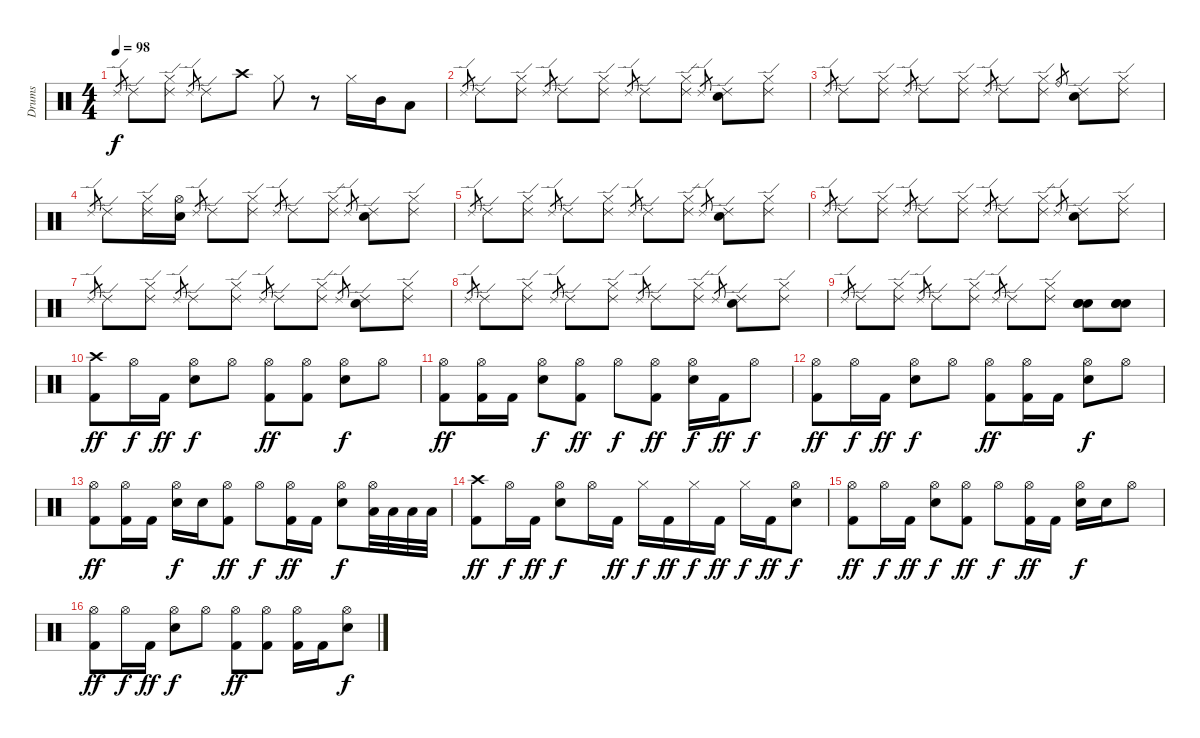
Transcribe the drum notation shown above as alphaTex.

\track ("Drums" "Drums") {instrument percussion}
\staff {score}
\articulation defaults
\ts (4 4)
\tempo 98
\clef neutral
\ks c "Ride (edge) 2".8{gr dy f} "Ride (edge) 2".8
("Ride (edge) 2" "Hi-Hat (closed)").8 "Ride (edge) 2".8{gr} "Ride (edge) 2".8 "Crash high (hit)".8 "Hi-Hat (closed)".8 r.8 "Hi-Hat (closed)".16 "Mid Tom (hit)".16 "Low Tom (hit)".8 |
"Ride (edge) 2".8{gr} "Ride (edge) 2".8 ("Ride (edge) 2" "Hi-Hat (closed)").8 "Ride (edge) 2".8{gr} "Ride (edge) 2".8 ("Ride (edge) 2" "Hi-Hat (closed)").8 "Ride (edge) 2".8{gr} "Ride (edge) 2".8 ("Ride (edge) 2" "Hi-Hat (closed)").8 "Ride (edge) 2".8{gr} ("Ride (edge) 2" "Snare (hit) 2").8 ("Ride (edge) 2" "Hi-Hat (closed)").8 |
"Ride (edge) 2".8{gr} "Ride (edge) 2".8 ("Ride (edge) 2" "Hi-Hat (closed)").8 "Ride (edge) 2".8{gr} "Ride (edge) 2".8 ("Ride (edge) 2" "Hi-Hat (closed)").8 "Ride (edge) 2".8{gr} "Ride (edge) 2".8 ("Ride (edge) 2" "Hi-Hat (closed)").8 "Ride (bell)".8{gr} ("Ride (edge) 2" "Snare (hit) 2").8 ("Ride (edge) 2" "Hi-Hat (closed)").8 |
"Ride (edge) 2".8{gr} "Ride (edge) 2".8 ("Ride (edge) 2" "Hi-Hat (closed)").16 ("Hi-Hat (open)" "Snare (hit) 2").16 "Ride (edge) 2".8{gr} "Ride (edge) 2".8 ("Ride (edge) 2" "Hi-Hat (closed)").8 "Ride (edge) 2".8{gr} "Ride (edge) 2".8 ("Ride (edge) 2" "Hi-Hat (closed)").8 "Ride (edge) 2".8{gr} ("Ride (edge) 2" "Snare (hit) 2").8 ("Ride (edge) 2" "Hi-Hat (closed)").8 |
"Ride (edge) 2".8{gr} "Ride (edge) 2".8 ("Ride (edge) 2" "Hi-Hat (closed)").8 "Ride (edge) 2".8{gr} "Ride (edge) 2".8 ("Ride (edge) 2" "Hi-Hat (closed)").8 "Ride (edge) 2".8{gr} "Ride (edge) 2".8 ("Ride (edge) 2" "Hi-Hat (closed)").8 "Ride (edge) 2".8{gr} ("Ride (edge) 2" "Snare (hit) 2").8 ("Ride (edge) 2" "Hi-Hat (closed)").8 |
"Ride (edge) 2".8{gr} "Ride (edge) 2".8 ("Ride (edge) 2" "Hi-Hat (closed)").8 "Ride (edge) 2".8{gr} "Ride (edge) 2".8 ("Ride (edge) 2" "Hi-Hat (closed)").8 "Ride (edge) 2".8{gr} "Ride (edge) 2".8 ("Ride (edge) 2" "Hi-Hat (closed)").8 "Ride (edge) 2".8{gr} ("Ride (edge) 2" "Snare (hit) 2").8 ("Ride (edge) 2" "Hi-Hat (closed)").8 |
"Ride (edge) 2".8{gr} "Ride (edge) 2".8 ("Ride (edge) 2" "Hi-Hat (closed)").8 "Ride (edge) 2".8{gr} "Ride (edge) 2".8 ("Ride (edge) 2" "Hi-Hat (closed)").8 "Ride (edge) 2".8{gr} "Ride (edge) 2".8 ("Ride (edge) 2" "Hi-Hat (closed)").8 "Ride (edge) 2".8{gr} ("Ride (edge) 2" "Snare (hit) 2").8 ("Ride (edge) 2" "Hi-Hat (closed)").8 |
"Ride (edge) 2".8{gr} "Ride (edge) 2".8 ("Ride (edge) 2" "Hi-Hat (closed)").8 "Ride (edge) 2".8{gr} "Ride (edge) 2".8 ("Ride (edge) 2" "Hi-Hat (closed)").8 "Ride (edge) 2".8{gr} "Ride (edge) 2".8 ("Ride (edge) 2" "Hi-Hat (closed)").8 "Ride (edge) 2".8{gr} ("Ride (edge) 2" "Snare (hit) 2").8 ("Ride (edge) 2" "Hi-Hat (closed)").8 |
"Ride (edge) 2".8{gr} "Ride (edge) 2".8 ("Ride (edge) 2" "Hi-Hat (closed)").8 "Ride (edge) 2".8{gr} "Ride (edge) 2".8 ("Ride (edge) 2" "Hi-Hat (closed)").8 "Ride (edge) 2".8{gr} "Ride (edge) 2".8 ("Ride (edge) 2" "Hi-Hat (closed)").8 ("Snare (hit) 2" "Snare (hit) 2" "Snare (hit) 2").8 ("Snare (hit) 2" "Snare (hit) 2" "Snare (hit) 2").8 |
("Crash high (hit)" "Kick (hit) 2").8{dy ff} "Hi-Hat (open)".16{dy f} "Kick (hit) 2".16{dy ff} ("Hi-Hat (open)" "Snare (hit) 2").8{dy f} "Hi-Hat (open)".8 ("Hi-Hat (open)" "Kick (hit) 2").8{dy ff} ("Hi-Hat (open)" "Kick (hit) 2").8 ("Hi-Hat (open)" "Snare (hit) 2").8{dy f} "Hi-Hat (open)".8 |
("Hi-Hat (open)" "Kick (hit) 2").8{dy ff} ("Hi-Hat (open)" "Kick (hit) 2").16 "Kick (hit) 2".16 ("Hi-Hat (open)" "Snare (hit) 2").8{dy f} ("Hi-Hat (open)" "Kick (hit) 2").8{dy ff} "Hi-Hat (open)".8{dy f} ("Hi-Hat (open)" "Kick (hit) 2").8{dy ff} ("Hi-Hat (open)" "Snare (hit) 2").16{dy f} "Kick (hit) 2".16{dy ff} "Hi-Hat (open)".8{dy f} |
("Hi-Hat (open)" "Kick (hit) 2").8{dy ff} "Hi-Hat (open)".16{dy f} "Kick (hit) 2".16{dy ff} ("Hi-Hat (open)" "Snare (hit) 2").8{dy f} "Hi-Hat (open)".8 ("Hi-Hat (open)" "Kick (hit) 2").8{dy ff} ("Hi-Hat (open)" "Kick (hit) 2").16 "Kick (hit) 2".16 ("Hi-Hat (open)" "Snare (hit) 2").8{dy f} "Hi-Hat (open)".8 |
("Hi-Hat (open)" "Kick (hit) 2").8{dy ff} ("Hi-Hat (open)" "Kick (hit) 2").16 "Kick (hit) 2".16 ("Hi-Hat (open)" "Snare (hit) 2").16{dy f} "Snare (hit) 2".16 ("Hi-Hat (open)" "Kick (hit) 2").8{dy ff} "Hi-Hat (open)".8{dy f} ("Hi-Hat (open)" "Kick (hit) 2").16{dy ff} "Kick (hit) 2".16 ("Hi-Hat (open)" "Snare (hit) 2").8{dy f} ("Hi-Hat (open)" "Low Tom (hit)").32 "Low Tom (hit)".32 "Low Tom (hit)".32 "Low Tom (hit)".32 |
("Crash high (hit)" "Kick (hit) 2").8{dy ff} "Hi-Hat (open)".16{dy f} "Kick (hit) 2".16{dy ff} ("Hi-Hat (open)" "Snare (hit) 2").8{dy f} "Hi-Hat (open)".16 "Kick (hit) 2".16{dy ff} "Hi-Hat (closed)".16{dy f} "Kick (hit) 2".16{dy ff} "Hi-Hat (closed)".16{dy f} "Kick (hit) 2".16{dy ff} "Hi-Hat (closed)".16{dy f} "Kick (hit) 2".16{dy ff} ("Hi-Hat (open)" "Snare (hit) 2").8{dy f} |
("Hi-Hat (open)" "Kick (hit) 2").8{dy ff} "Hi-Hat (open)".16{dy f} "Kick (hit) 2".16{dy ff} ("Hi-Hat (open)" "Snare (hit) 2").8{dy f} ("Hi-Hat (open)" "Kick (hit) 2").8{dy ff} "Hi-Hat (open)".8{dy f} ("Hi-Hat (open)" "Kick (hit) 2").16{dy ff} "Kick (hit) 2".16 ("Hi-Hat (open)" "Snare (hit) 2").16{dy f} "Snare (hit) 2".16 "Hi-Hat (open)".8 |
("Hi-Hat (open)" "Kick (hit) 2").8{dy ff} "Hi-Hat (open)".16{dy f} "Kick (hit) 2".16{dy ff} ("Hi-Hat (open)" "Snare (hit) 2").8{dy f} "Hi-Hat (open)".8 ("Hi-Hat (open)" "Kick (hit) 2").8{dy ff} ("Hi-Hat (open)" "Kick (hit) 2").8 ("Hi-Hat (open)" "Kick (hit) 2").16 "Kick (hit) 2".16 ("Hi-Hat (open)" "Snare (hit) 2").8{dy f}
